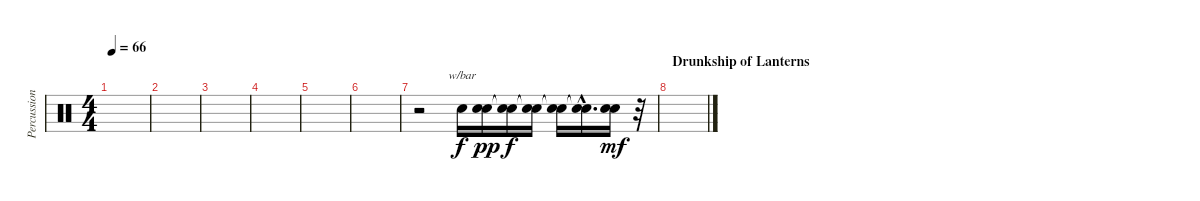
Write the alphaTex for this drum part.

\track ("Percussion" "Percussion") {instrument percussion}
\staff {score}
\articulation defaults
\ts (4 4)
\tempo 66
\clef neutral
\ks c
|
\section ("" "")
|
|
|
|
|
r.2 "Snare (hit) 2"{tr (38 64)}.16{tbe (custom default 0 0 12 0 20 -2 23 -2 26 -2 32 0 36 -2 42 -2 47 0 51 0 55 0 60 0)} ("Snare (hit) 2"{t} "Electric Snare (hit)"{tr (40 64)}).16{dy pp} ("Snare (hit) 2"{t} "Snare (hit)"{t}).16{dy f} ("Snare (hit)"{t} "Snare (hit)"{t}).16 ("Snare (hit)"{t} "Snare (hit)"{t}).16 ("Snare (hit)"{hac t} "Snare (hit)"{hac t}).16{d} ("Snare (hit) 2" "Electric Snare (hit)").16{dy mf} r.32 |
\section ("" "Drunkship of Lanterns")
